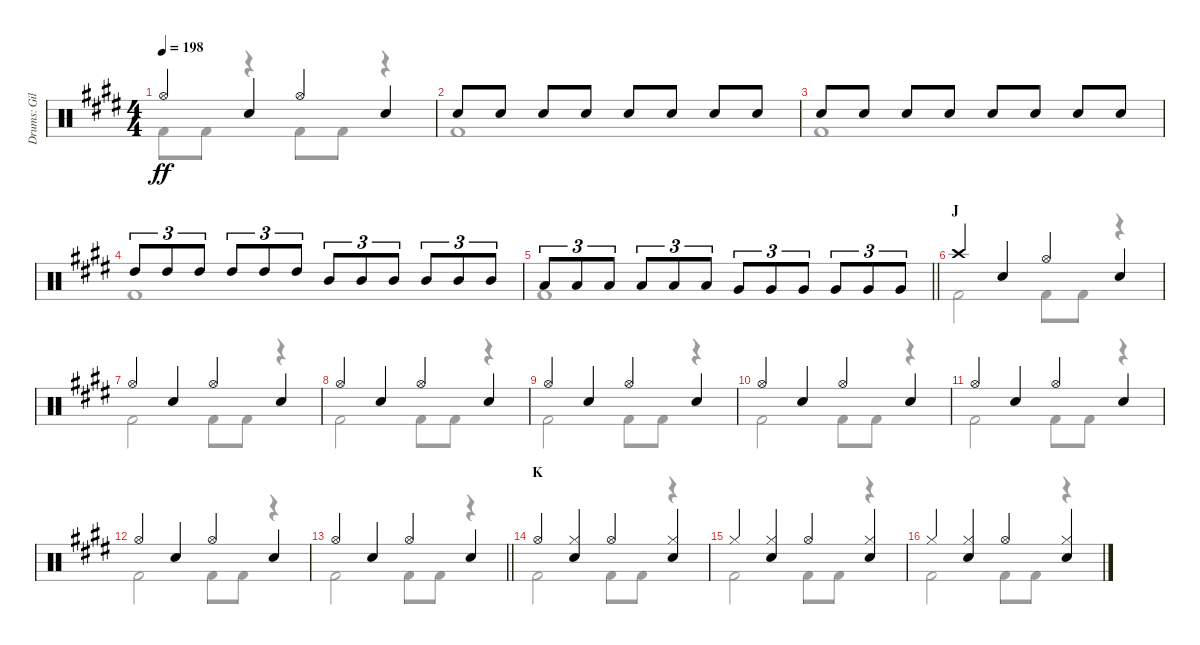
\track ("Drums: Gil" "Drums: Gil") {instrument percussion}
\staff {score}
\articulation defaults
\voice
\ts (4 4)
\tempo 198
\clef neutral
\ks e "Hi-Hat (open)".4{dy ff} "Snare (hit) 2".4{beam merge} "Hi-Hat (open)".4 "Snare (hit) 2".4
|
"Snare (hit) 2".8 "Snare (hit) 2".8 "Snare (hit) 2".8 "Snare (hit) 2".8 "Snare (hit) 2".8 "Snare (hit) 2".8 "Snare (hit) 2".8 "Snare (hit) 2".8 |
"Snare (hit) 2".8 "Snare (hit) 2".8 "Snare (hit) 2".8 "Snare (hit) 2".8 "Snare (hit) 2".8 "Snare (hit) 2".8 "Snare (hit) 2".8 "Snare (hit) 2".8 |
"High Tom (hit)".8{tu (3 2)} "High Tom (hit)".8{tu (3 2)} "High Tom (hit)".8{tu (3 2)} "High Tom (hit)".8{tu (3 2)} "High Tom (hit)".8{tu (3 2)} "High Tom (hit)".8{tu (3 2)} "Mid Tom (hit)".8{tu (3 2)} "Mid Tom (hit)".8{tu (3 2)} "Mid Tom (hit)".8{tu (3 2)} "Mid Tom (hit)".8{tu (3 2)} "Mid Tom (hit)".8{tu (3 2)} "Mid Tom (hit)".8{tu (3 2)} |
\barLineRight lightlight "Low Tom (hit)".8{tu (3 2)} "Low Tom (hit)".8{tu (3 2)} "Low Tom (hit)".8{tu (3 2)} "Low Tom (hit)".8{tu (3 2)} "Low Tom (hit)".8{tu (3 2)} "Low Tom (hit)".8{tu (3 2)} "Very Low Tom (hit)".8{tu (3 2)} "Very Low Tom (hit)".8{tu (3 2)} "Very Low Tom (hit)".8{tu (3 2)} "Very Low Tom (hit)".8{tu (3 2)} "Very Low Tom (hit)".8{tu (3 2)} "Very Low Tom (hit)".8{tu (3 2)}
|
\section ("" "J")
"Crash high (hit)".4 "Snare (hit) 2".4{beam merge} "Hi-Hat (open)".4 "Snare (hit) 2".4 |
"Hi-Hat (open)".4 "Snare (hit) 2".4{beam merge} "Hi-Hat (open)".4 "Snare (hit) 2".4 |
"Hi-Hat (open)".4 "Snare (hit) 2".4{beam merge} "Hi-Hat (open)".4 "Snare (hit) 2".4 |
"Hi-Hat (open)".4 "Snare (hit) 2".4{beam merge} "Hi-Hat (open)".4 "Snare (hit) 2".4 |
"Hi-Hat (open)".4 "Snare (hit) 2".4{beam merge} "Hi-Hat (open)".4 "Snare (hit) 2".4 |
"Hi-Hat (open)".4 "Snare (hit) 2".4{beam merge} "Hi-Hat (open)".4 "Snare (hit) 2".4 |
"Hi-Hat (open)".4 "Snare (hit) 2".4{beam merge} "Hi-Hat (open)".4 "Snare (hit) 2".4 |
\barLineRight lightlight "Hi-Hat (open)".4 "Snare (hit) 2".4{beam merge} "Hi-Hat (open)".4 "Snare (hit) 2".4
|
\section ("" "K")
"Hi-Hat (open)".4 ("Hi-Hat (closed)" "Snare (hit) 2").4{beam merge} "Hi-Hat (open)".4 ("Hi-Hat (closed)" "Snare (hit) 2").4 |
"Hi-Hat (closed)".4 ("Hi-Hat (closed)" "Snare (hit) 2").4{beam merge} "Hi-Hat (open)".4 ("Hi-Hat (closed)" "Snare (hit) 2").4 |
"Hi-Hat (closed)".4 ("Hi-Hat (closed)" "Snare (hit) 2").4{beam merge} "Hi-Hat (open)".4 ("Hi-Hat (closed)" "Snare (hit) 2").4
\voice
\clef neutral
\ottava regular
\simile none
\ks e "Kick (hit) 2".8{dy ff} "Kick (hit) 2".8
r.4 "Kick (hit) 2".8 "Kick (hit) 2".8 r.4 |
"Kick (hit) 2".1 |
"Kick (hit) 2".1 |
"Kick (hit) 2".1 |
\barLineRight lightlight "Kick (hit) 2".1
|
"Kick (hit) 2".2 "Kick (hit) 2".8 "Kick (hit) 2".8 r.4 |
"Kick (hit) 2".2 "Kick (hit) 2".8 "Kick (hit) 2".8 r.4 |
"Kick (hit) 2".2 "Kick (hit) 2".8 "Kick (hit) 2".8 r.4 |
"Kick (hit) 2".2 "Kick (hit) 2".8 "Kick (hit) 2".8 r.4 |
"Kick (hit) 2".2 "Kick (hit) 2".8 "Kick (hit) 2".8 r.4 |
"Kick (hit) 2".2 "Kick (hit) 2".8 "Kick (hit) 2".8 r.4 |
"Kick (hit) 2".2 "Kick (hit) 2".8 "Kick (hit) 2".8 r.4 |
\barLineRight lightlight "Kick (hit) 2".2 "Kick (hit) 2".8 "Kick (hit) 2".8
r.4 |
"Kick (hit) 2".2 "Kick (hit) 2".8 "Kick (hit) 2".8 r.4 |
"Kick (hit) 2".2 "Kick (hit) 2".8 "Kick (hit) 2".8 r.4 |
"Kick (hit) 2".2 "Kick (hit) 2".8 "Kick (hit) 2".8 r.4
